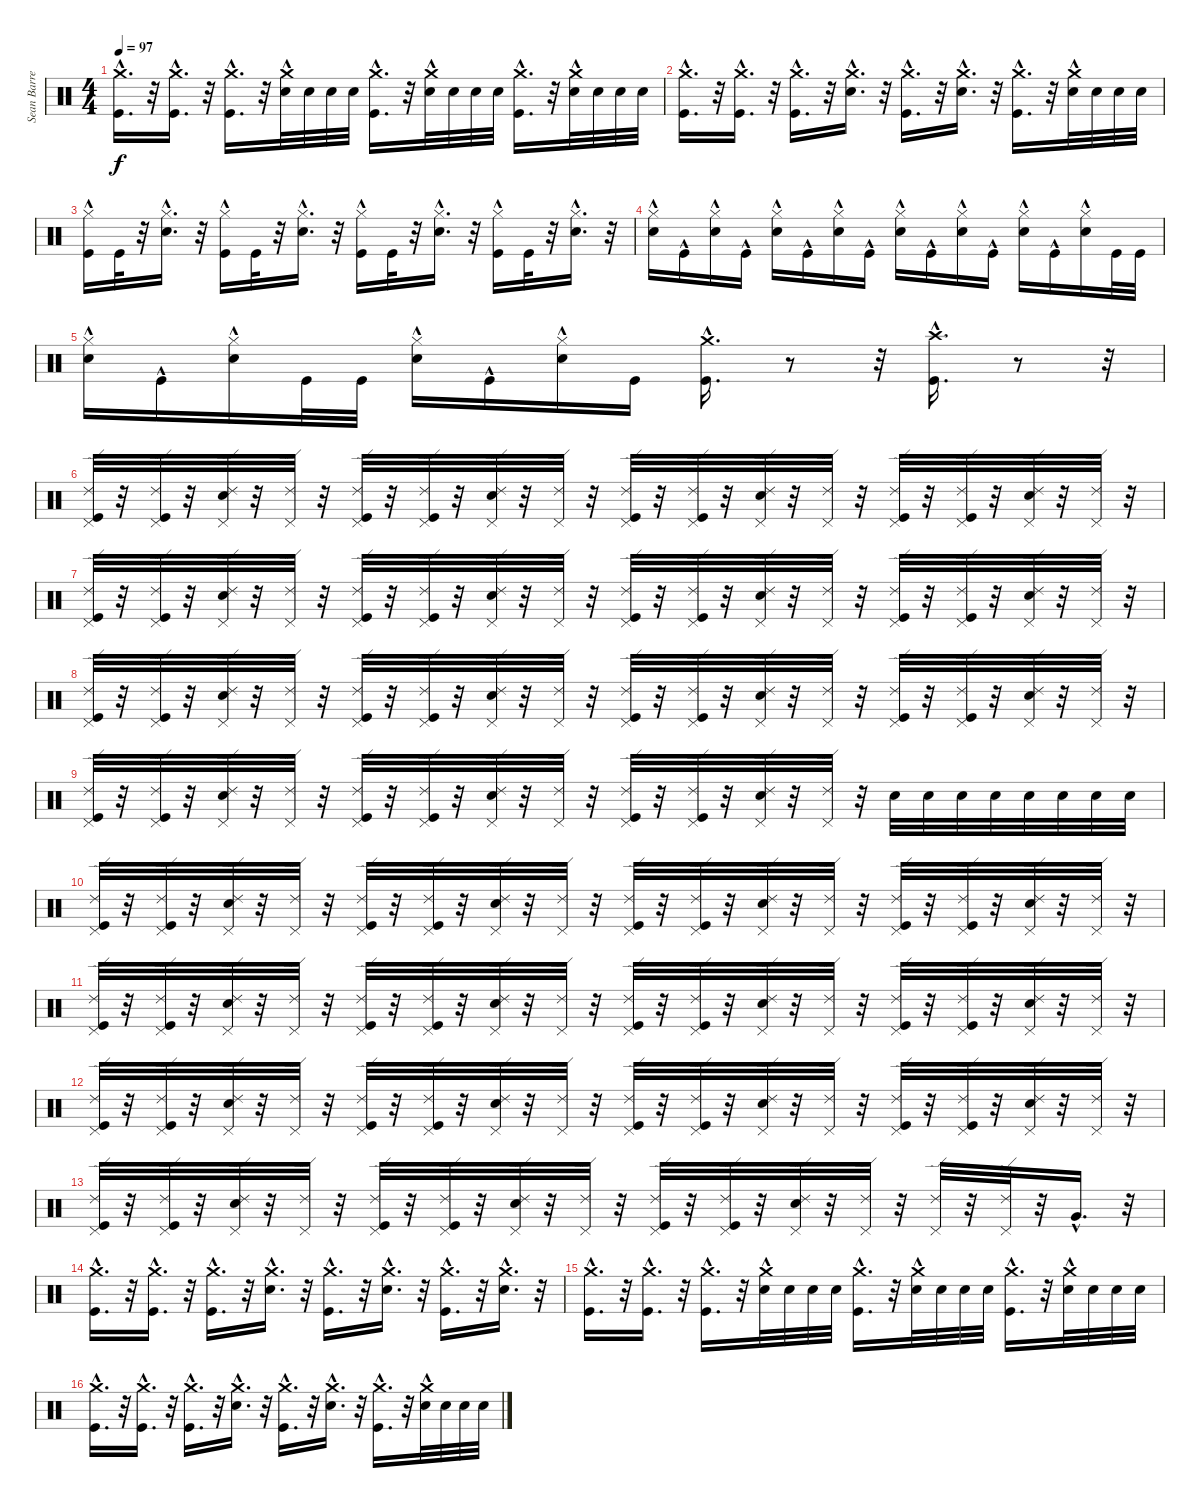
\track ("Sean Barrett" "Sean Barre") {instrument percussion}
\staff {score}
\articulation defaults
\ts (4 4)
\tempo 97
\clef neutral
\ks c
("Kick (hit)"{hac} "Crash medium (hit)"{hac}).16{d dy f} r.32 ("Kick (hit)"{hac} "Crash medium (hit)"{hac}).16{d} r.32 ("Kick (hit)"{hac} "Crash medium (hit)"{hac}).16{d} r.32 ("Snare (hit) 2" "Crash medium (hit)"{hac}).32 "Snare (hit) 2".32 "Snare (hit) 2".32 "Snare (hit) 2".32 ("Kick (hit)"{hac} "Crash medium (hit)"{hac}).16{d} r.32 ("Snare (hit) 2" "Crash medium (hit)"{hac}).32 "Snare (hit) 2".32 "Snare (hit) 2".32 "Snare (hit) 2".32 ("Kick (hit)"{hac} "Crash medium (hit)"{hac}).16{d} r.32 ("Snare (hit) 2" "Crash medium (hit)"{hac}).32 "Snare (hit) 2".32 "Snare (hit) 2".32 "Snare (hit) 2".32 |
("Kick (hit)"{hac} "Crash medium (hit)"{hac}).16{d} r.32 ("Kick (hit)"{hac} "Crash medium (hit)"{hac}).16{d} r.32 ("Kick (hit)"{hac} "Crash medium (hit)"{hac}).16{d} r.32 ("Snare (hit) 2"{hac} "Crash medium (hit)"{hac}).16{d} r.32 ("Kick (hit)"{hac} "Crash medium (hit)"{hac}).16{d} r.32 ("Snare (hit) 2"{hac} "Crash medium (hit)"{hac}).16{d} r.32 ("Kick (hit)"{hac} "Crash medium (hit)"{hac}).16{d} r.32 ("Snare (hit) 2" "Crash medium (hit)"{hac}).32 "Snare (hit) 2".32 "Snare (hit) 2".32 "Snare (hit) 2".32 |
("Kick (hit)" "Hi-Hat (closed)"{hac}).16 "Kick (hit)".32 r.32 ("Snare (hit) 2"{hac} "Hi-Hat (closed)"{hac}).16{d} r.32 ("Kick (hit)" "Hi-Hat (closed)"{hac}).16 "Kick (hit)".32 r.32 ("Snare (hit) 2"{hac} "Hi-Hat (closed)"{hac}).16{d} r.32 ("Kick (hit)" "Hi-Hat (closed)"{hac}).16 "Kick (hit)".32 r.32 ("Snare (hit) 2"{hac} "Hi-Hat (closed)"{hac}).16{d} r.32 ("Kick (hit)" "Hi-Hat (closed)"{hac}).16 "Kick (hit)".32 r.32 ("Snare (hit) 2"{hac} "Hi-Hat (closed)"{hac}).16{d} r.32 |
("Snare (hit) 2"{hac} "Hi-Hat (closed)"{hac}).16 "Kick (hit)"{hac}.16 ("Snare (hit) 2"{hac} "Hi-Hat (closed)"{hac}).16 "Kick (hit)"{hac}.16 ("Snare (hit) 2"{hac} "Hi-Hat (closed)"{hac}).16 "Kick (hit)"{hac}.16 ("Snare (hit) 2"{hac} "Hi-Hat (closed)"{hac}).16 "Kick (hit)"{hac}.16 ("Snare (hit) 2"{hac} "Hi-Hat (closed)"{hac}).16 "Kick (hit)"{hac}.16 ("Snare (hit) 2"{hac} "Hi-Hat (closed)"{hac}).16 "Kick (hit)"{hac}.16 ("Hi-Hat (closed)"{hac} "Snare (hit) 2"{hac}).16 "Kick (hit)"{hac}.16 ("Hi-Hat (closed)"{hac} "Snare (hit) 2"{hac}).16 "Kick (hit)".32 "Kick (hit)".32 |
("Snare (hit) 2"{hac} "Hi-Hat (closed)"{hac}).16 "Kick (hit)"{hac}.16 ("Snare (hit) 2"{hac} "Hi-Hat (closed)"{hac}).16 "Kick (hit)".32 "Kick (hit)".32 ("Snare (hit) 2"{hac} "Hi-Hat (closed)"{hac}).16 "Kick (hit)"{hac}.16 ("Snare (hit) 2"{hac} "Hi-Hat (closed)"{hac}).16 "Kick (hit)".16 ("Kick (hit)"{hac} "Crash medium (hit)"{hac}).16{d} r.8 r.32 ("Crash high (hit)"{hac} "Kick (hit)"{hac}).16{d} r.8 r.32 |
("Pedal Hi-Hat (hit)" "Ride (edge) 2" "Kick (hit)").32 r.32 ("Pedal Hi-Hat (hit)" "Ride (edge) 2" "Kick (hit)").32 r.32 ("Pedal Hi-Hat (hit)" "Ride (edge) 2" "Snare (hit) 2").32 r.32 ("Pedal Hi-Hat (hit)" "Ride (edge) 2").32 r.32 ("Kick (hit)" "Pedal Hi-Hat (hit)" "Ride (edge) 2").32 r.32 ("Kick (hit)" "Pedal Hi-Hat (hit)" "Ride (edge) 2").32 r.32 ("Snare (hit) 2" "Pedal Hi-Hat (hit)" "Ride (edge) 2").32 r.32 ("Pedal Hi-Hat (hit)" "Ride (edge) 2").32 r.32 ("Kick (hit)" "Pedal Hi-Hat (hit)" "Ride (edge) 2").32 r.32 ("Kick (hit)" "Pedal Hi-Hat (hit)" "Ride (edge) 2").32 r.32 ("Snare (hit) 2" "Pedal Hi-Hat (hit)" "Ride (edge) 2").32 r.32 ("Pedal Hi-Hat (hit)" "Ride (edge) 2").32 r.32 ("Kick (hit)" "Pedal Hi-Hat (hit)" "Ride (edge) 2").32 r.32 ("Kick (hit)" "Pedal Hi-Hat (hit)" "Ride (edge) 2").32 r.32 ("Snare (hit) 2" "Pedal Hi-Hat (hit)" "Ride (edge) 2").32 r.32 ("Pedal Hi-Hat (hit)" "Ride (edge) 2").32 r.32 |
("Pedal Hi-Hat (hit)" "Ride (edge) 2" "Kick (hit)").32 r.32 ("Pedal Hi-Hat (hit)" "Ride (edge) 2" "Kick (hit)").32 r.32 ("Pedal Hi-Hat (hit)" "Ride (edge) 2" "Snare (hit) 2").32 r.32 ("Pedal Hi-Hat (hit)" "Ride (edge) 2").32 r.32 ("Kick (hit)" "Pedal Hi-Hat (hit)" "Ride (edge) 2").32 r.32 ("Kick (hit)" "Pedal Hi-Hat (hit)" "Ride (edge) 2").32 r.32 ("Snare (hit) 2" "Pedal Hi-Hat (hit)" "Ride (edge) 2").32 r.32 ("Pedal Hi-Hat (hit)" "Ride (edge) 2").32 r.32 ("Kick (hit)" "Pedal Hi-Hat (hit)" "Ride (edge) 2").32 r.32 ("Kick (hit)" "Pedal Hi-Hat (hit)" "Ride (edge) 2").32 r.32 ("Snare (hit) 2" "Pedal Hi-Hat (hit)" "Ride (edge) 2").32 r.32 ("Pedal Hi-Hat (hit)" "Ride (edge) 2").32 r.32 ("Kick (hit)" "Pedal Hi-Hat (hit)" "Ride (edge) 2").32 r.32 ("Kick (hit)" "Pedal Hi-Hat (hit)" "Ride (edge) 2").32 r.32 ("Snare (hit) 2" "Pedal Hi-Hat (hit)" "Ride (edge) 2").32 r.32 ("Pedal Hi-Hat (hit)" "Ride (edge) 2").32 r.32 |
("Pedal Hi-Hat (hit)" "Ride (edge) 2" "Kick (hit)").32 r.32 ("Pedal Hi-Hat (hit)" "Ride (edge) 2" "Kick (hit)").32 r.32 ("Pedal Hi-Hat (hit)" "Ride (edge) 2" "Snare (hit) 2").32 r.32 ("Pedal Hi-Hat (hit)" "Ride (edge) 2").32 r.32 ("Kick (hit)" "Pedal Hi-Hat (hit)" "Ride (edge) 2").32 r.32 ("Kick (hit)" "Pedal Hi-Hat (hit)" "Ride (edge) 2").32 r.32 ("Snare (hit) 2" "Pedal Hi-Hat (hit)" "Ride (edge) 2").32 r.32 ("Pedal Hi-Hat (hit)" "Ride (edge) 2").32 r.32 ("Kick (hit)" "Pedal Hi-Hat (hit)" "Ride (edge) 2").32 r.32 ("Kick (hit)" "Pedal Hi-Hat (hit)" "Ride (edge) 2").32 r.32 ("Snare (hit) 2" "Pedal Hi-Hat (hit)" "Ride (edge) 2").32 r.32 ("Pedal Hi-Hat (hit)" "Ride (edge) 2").32 r.32 ("Kick (hit)" "Pedal Hi-Hat (hit)" "Ride (edge) 2").32 r.32 ("Kick (hit)" "Pedal Hi-Hat (hit)" "Ride (edge) 2").32 r.32 ("Snare (hit) 2" "Pedal Hi-Hat (hit)" "Ride (edge) 2").32 r.32 ("Pedal Hi-Hat (hit)" "Ride (edge) 2").32 r.32 |
("Pedal Hi-Hat (hit)" "Ride (edge) 2" "Kick (hit)").32 r.32 ("Pedal Hi-Hat (hit)" "Ride (edge) 2" "Kick (hit)").32 r.32 ("Pedal Hi-Hat (hit)" "Ride (edge) 2" "Snare (hit) 2").32 r.32 ("Pedal Hi-Hat (hit)" "Ride (edge) 2").32 r.32 ("Kick (hit)" "Pedal Hi-Hat (hit)" "Ride (edge) 2").32 r.32 ("Kick (hit)" "Pedal Hi-Hat (hit)" "Ride (edge) 2").32 r.32 ("Snare (hit) 2" "Pedal Hi-Hat (hit)" "Ride (edge) 2").32 r.32 ("Pedal Hi-Hat (hit)" "Ride (edge) 2").32 r.32 ("Kick (hit)" "Pedal Hi-Hat (hit)" "Ride (edge) 2").32 r.32 ("Kick (hit)" "Pedal Hi-Hat (hit)" "Ride (edge) 2").32 r.32 ("Snare (hit) 2" "Pedal Hi-Hat (hit)" "Ride (edge) 2").32 r.32 ("Pedal Hi-Hat (hit)" "Ride (edge) 2").32 r.32 "Snare (hit) 2".32 "Snare (hit) 2".32 "Snare (hit) 2".32 "Snare (hit) 2".32 "Snare (hit) 2".32 "Snare (hit) 2".32 "Snare (hit) 2".32 "Snare (hit) 2".32 |
("Pedal Hi-Hat (hit)" "Ride (edge) 2" "Kick (hit)").32 r.32 ("Pedal Hi-Hat (hit)" "Ride (edge) 2" "Kick (hit)").32 r.32 ("Pedal Hi-Hat (hit)" "Ride (edge) 2" "Snare (hit) 2").32 r.32 ("Pedal Hi-Hat (hit)" "Ride (edge) 2").32 r.32 ("Kick (hit)" "Pedal Hi-Hat (hit)" "Ride (edge) 2").32 r.32 ("Kick (hit)" "Pedal Hi-Hat (hit)" "Ride (edge) 2").32 r.32 ("Snare (hit) 2" "Pedal Hi-Hat (hit)" "Ride (edge) 2").32 r.32 ("Pedal Hi-Hat (hit)" "Ride (edge) 2").32 r.32 ("Kick (hit)" "Pedal Hi-Hat (hit)" "Ride (edge) 2").32 r.32 ("Kick (hit)" "Pedal Hi-Hat (hit)" "Ride (edge) 2").32 r.32 ("Snare (hit) 2" "Pedal Hi-Hat (hit)" "Ride (edge) 2").32 r.32 ("Pedal Hi-Hat (hit)" "Ride (edge) 2").32 r.32 ("Kick (hit)" "Pedal Hi-Hat (hit)" "Ride (edge) 2").32 r.32 ("Kick (hit)" "Pedal Hi-Hat (hit)" "Ride (edge) 2").32 r.32 ("Snare (hit) 2" "Pedal Hi-Hat (hit)" "Ride (edge) 2").32 r.32 ("Pedal Hi-Hat (hit)" "Ride (edge) 2").32 r.32 |
("Pedal Hi-Hat (hit)" "Ride (edge) 2" "Kick (hit)").32 r.32 ("Pedal Hi-Hat (hit)" "Ride (edge) 2" "Kick (hit)").32 r.32 ("Pedal Hi-Hat (hit)" "Ride (edge) 2" "Snare (hit) 2").32 r.32 ("Pedal Hi-Hat (hit)" "Ride (edge) 2").32 r.32 ("Kick (hit)" "Pedal Hi-Hat (hit)" "Ride (edge) 2").32 r.32 ("Kick (hit)" "Pedal Hi-Hat (hit)" "Ride (edge) 2").32 r.32 ("Snare (hit) 2" "Pedal Hi-Hat (hit)" "Ride (edge) 2").32 r.32 ("Pedal Hi-Hat (hit)" "Ride (edge) 2").32 r.32 ("Kick (hit)" "Pedal Hi-Hat (hit)" "Ride (edge) 2").32 r.32 ("Kick (hit)" "Pedal Hi-Hat (hit)" "Ride (edge) 2").32 r.32 ("Snare (hit) 2" "Pedal Hi-Hat (hit)" "Ride (edge) 2").32 r.32 ("Pedal Hi-Hat (hit)" "Ride (edge) 2").32 r.32 ("Kick (hit)" "Pedal Hi-Hat (hit)" "Ride (edge) 2").32 r.32 ("Kick (hit)" "Pedal Hi-Hat (hit)" "Ride (edge) 2").32 r.32 ("Snare (hit) 2" "Pedal Hi-Hat (hit)" "Ride (edge) 2").32 r.32 ("Pedal Hi-Hat (hit)" "Ride (edge) 2").32 r.32 |
("Pedal Hi-Hat (hit)" "Ride (edge) 2" "Kick (hit)").32 r.32 ("Pedal Hi-Hat (hit)" "Ride (edge) 2" "Kick (hit)").32 r.32 ("Pedal Hi-Hat (hit)" "Ride (edge) 2" "Snare (hit) 2").32 r.32 ("Pedal Hi-Hat (hit)" "Ride (edge) 2").32 r.32 ("Kick (hit)" "Pedal Hi-Hat (hit)" "Ride (edge) 2").32 r.32 ("Kick (hit)" "Pedal Hi-Hat (hit)" "Ride (edge) 2").32 r.32 ("Snare (hit) 2" "Pedal Hi-Hat (hit)" "Ride (edge) 2").32 r.32 ("Pedal Hi-Hat (hit)" "Ride (edge) 2").32 r.32 ("Kick (hit)" "Pedal Hi-Hat (hit)" "Ride (edge) 2").32 r.32 ("Kick (hit)" "Pedal Hi-Hat (hit)" "Ride (edge) 2").32 r.32 ("Snare (hit) 2" "Pedal Hi-Hat (hit)" "Ride (edge) 2").32 r.32 ("Pedal Hi-Hat (hit)" "Ride (edge) 2").32 r.32 ("Kick (hit)" "Pedal Hi-Hat (hit)" "Ride (edge) 2").32 r.32 ("Kick (hit)" "Pedal Hi-Hat (hit)" "Ride (edge) 2").32 r.32 ("Snare (hit) 2" "Pedal Hi-Hat (hit)" "Ride (edge) 2").32 r.32 ("Pedal Hi-Hat (hit)" "Ride (edge) 2").32 r.32 |
("Pedal Hi-Hat (hit)" "Ride (edge) 2" "Kick (hit)").32 r.32 ("Pedal Hi-Hat (hit)" "Ride (edge) 2" "Kick (hit)").32 r.32 ("Pedal Hi-Hat (hit)" "Ride (edge) 2" "Snare (hit) 2").32 r.32 ("Pedal Hi-Hat (hit)" "Ride (edge) 2").32 r.32 ("Kick (hit)" "Pedal Hi-Hat (hit)" "Ride (edge) 2").32 r.32 ("Kick (hit)" "Pedal Hi-Hat (hit)" "Ride (edge) 2").32 r.32 ("Snare (hit) 2" "Pedal Hi-Hat (hit)" "Ride (edge) 2").32 r.32 ("Pedal Hi-Hat (hit)" "Ride (edge) 2").32 r.32 ("Kick (hit)" "Pedal Hi-Hat (hit)" "Ride (edge) 2").32 r.32 ("Kick (hit)" "Pedal Hi-Hat (hit)" "Ride (edge) 2").32 r.32 ("Snare (hit) 2" "Pedal Hi-Hat (hit)" "Ride (edge) 2").32 r.32 ("Pedal Hi-Hat (hit)" "Ride (edge) 2").32 r.32 ("Pedal Hi-Hat (hit)" "Ride (edge) 2").32 r.32 ("Pedal Hi-Hat (hit)" "Ride (edge) 2").32 r.32 "Very Low Tom (hit)"{hac}.16{d} r.32 |
("Kick (hit)"{hac} "Crash medium (hit)"{hac}).16{d} r.32 ("Kick (hit)"{hac} "Crash medium (hit)"{hac}).16{d} r.32 ("Kick (hit)"{hac} "Crash medium (hit)"{hac}).16{d} r.32 ("Snare (hit) 2"{hac} "Crash medium (hit)"{hac}).16{d} r.32 ("Kick (hit)"{hac} "Crash medium (hit)"{hac}).16{d} r.32 ("Snare (hit) 2"{hac} "Crash medium (hit)"{hac}).16{d} r.32 ("Kick (hit)"{hac} "Crash medium (hit)"{hac}).16{d} r.32 ("Snare (hit) 2"{hac} "Crash medium (hit)"{hac}).16{d} r.32 |
("Kick (hit)"{hac} "Crash medium (hit)"{hac}).16{d} r.32 ("Kick (hit)"{hac} "Crash medium (hit)"{hac}).16{d} r.32 ("Kick (hit)"{hac} "Crash medium (hit)"{hac}).16{d} r.32 ("Snare (hit) 2" "Crash medium (hit)"{hac}).32 "Snare (hit) 2".32 "Snare (hit) 2".32 "Snare (hit) 2".32 ("Kick (hit)"{hac} "Crash medium (hit)"{hac}).16{d} r.32 ("Snare (hit) 2" "Crash medium (hit)"{hac}).32 "Snare (hit) 2".32 "Snare (hit) 2".32 "Snare (hit) 2".32 ("Kick (hit)"{hac} "Crash medium (hit)"{hac}).16{d} r.32 ("Snare (hit) 2" "Crash medium (hit)"{hac}).32 "Snare (hit) 2".32 "Snare (hit) 2".32 "Snare (hit) 2".32 |
("Kick (hit)"{hac} "Crash medium (hit)"{hac}).16{d} r.32 ("Kick (hit)"{hac} "Crash medium (hit)"{hac}).16{d} r.32 ("Kick (hit)"{hac} "Crash medium (hit)"{hac}).16{d} r.32 ("Snare (hit) 2"{hac} "Crash medium (hit)"{hac}).16{d} r.32 ("Kick (hit)"{hac} "Crash medium (hit)"{hac}).16{d} r.32 ("Snare (hit) 2"{hac} "Crash medium (hit)"{hac}).16{d} r.32 ("Kick (hit)"{hac} "Crash medium (hit)"{hac}).16{d} r.32 ("Snare (hit) 2" "Crash medium (hit)"{hac}).32 "Snare (hit) 2".32 "Snare (hit) 2".32 "Snare (hit) 2".32
